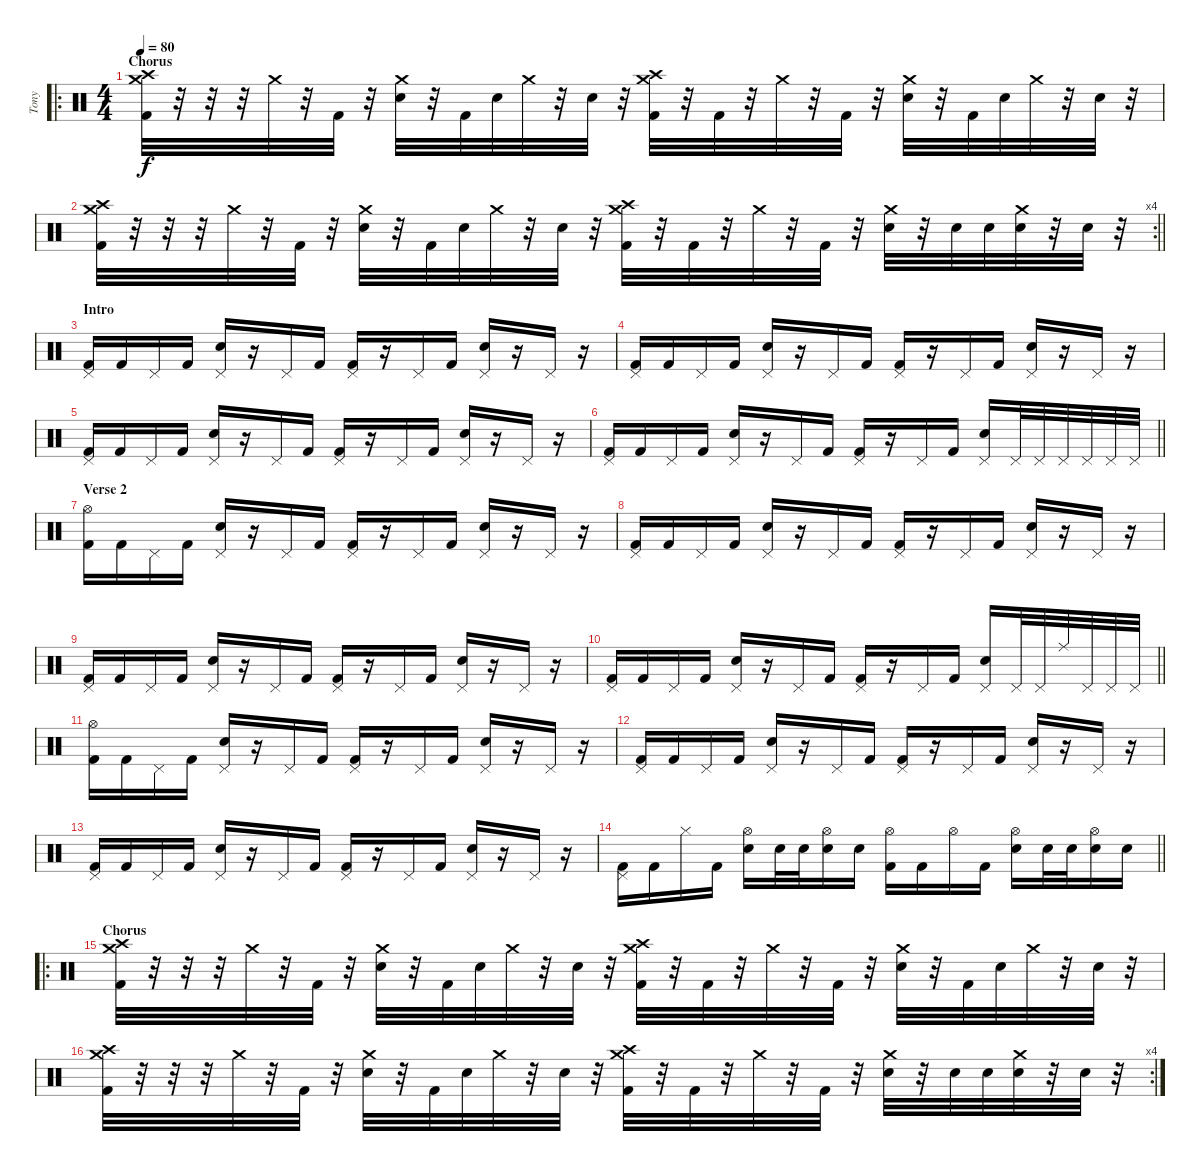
\track ("Tony" "Tony") {instrument percussion}
\staff {score}
\articulation defaults
\ro
\ts (4 4)
\section ("" "Chorus")
\tempo 80
\clef neutral
\ks c
("Crash medium (hit)" "Crash high (hit)" "Kick (hit) 2").32{dy f} r.32 r.32 r.32 "Crash medium (hit)".32 r.32 "Kick (hit) 2".32 r.32 ("Crash medium (hit)" "Electric Snare (hit)").32 r.32 "Kick (hit) 2".32 "Electric Snare (hit)".32 "Crash medium (hit)".32 r.32 "Electric Snare (hit)".32 r.32 ("Crash medium (hit)" "Crash high (hit)" "Kick (hit) 2").32 r.32 "Kick (hit) 2".32 r.32 "Crash medium (hit)".32 r.32 "Kick (hit) 2".32 r.32 ("Crash medium (hit)" "Electric Snare (hit)").32 r.32 "Kick (hit) 2".32 "Electric Snare (hit)".32 "Crash medium (hit)".32 r.32 "Electric Snare (hit)".32 r.32 |
\rc 4
\barLineRight lightlight
("Crash medium (hit)" "Crash high (hit)" "Kick (hit) 2").32 r.32 r.32 r.32 "Crash medium (hit)".32 r.32 "Kick (hit) 2".32 r.32 ("Crash medium (hit)" "Electric Snare (hit)").32 r.32 "Kick (hit) 2".32 "Electric Snare (hit)".32 "Crash medium (hit)".32 r.32 "Electric Snare (hit)".32 r.32 ("Crash medium (hit)" "Crash high (hit)" "Kick (hit) 2").32 r.32 "Kick (hit) 2".32 r.32 "Crash medium (hit)".32 r.32 "Kick (hit) 2".32 r.32 ("Crash medium (hit)" "Electric Snare (hit)").32 r.32 "Electric Snare (hit)".32 "Electric Snare (hit)".32 ("Crash medium (hit)" "Electric Snare (hit)").32 r.32 "Electric Snare (hit)".32 r.32 |
\section ("" "Intro")
("Pedal Hi-Hat (hit)" "Kick (hit) 2").16 "Kick (hit) 2".16 "Pedal Hi-Hat (hit)".16 "Kick (hit) 2".16 ("Pedal Hi-Hat (hit)" "Electric Snare (hit)").16 r.16 "Pedal Hi-Hat (hit)".16 "Kick (hit) 2".16 ("Pedal Hi-Hat (hit)" "Kick (hit) 2").16 r.16 "Pedal Hi-Hat (hit)".16 "Kick (hit) 2".16 ("Pedal Hi-Hat (hit)" "Electric Snare (hit)").16 r.16 "Pedal Hi-Hat (hit)".16 r.16 |
("Pedal Hi-Hat (hit)" "Kick (hit) 2").16 "Kick (hit) 2".16 "Pedal Hi-Hat (hit)".16 "Kick (hit) 2".16 ("Pedal Hi-Hat (hit)" "Electric Snare (hit)").16 r.16 "Pedal Hi-Hat (hit)".16 "Kick (hit) 2".16 ("Pedal Hi-Hat (hit)" "Kick (hit) 2").16 r.16 "Pedal Hi-Hat (hit)".16 "Kick (hit) 2".16 ("Pedal Hi-Hat (hit)" "Electric Snare (hit)").16 r.16 "Pedal Hi-Hat (hit)".16 r.16 |
("Pedal Hi-Hat (hit)" "Kick (hit) 2").16 "Kick (hit) 2".16 "Pedal Hi-Hat (hit)".16 "Kick (hit) 2".16 ("Pedal Hi-Hat (hit)" "Electric Snare (hit)").16 r.16 "Pedal Hi-Hat (hit)".16 "Kick (hit) 2".16 ("Pedal Hi-Hat (hit)" "Kick (hit) 2").16 r.16 "Pedal Hi-Hat (hit)".16 "Kick (hit) 2".16 ("Pedal Hi-Hat (hit)" "Electric Snare (hit)").16 r.16 "Pedal Hi-Hat (hit)".16 r.16 |
\barLineRight lightlight
("Pedal Hi-Hat (hit)" "Kick (hit) 2").16 "Kick (hit) 2".16 "Pedal Hi-Hat (hit)".16 "Kick (hit) 2".16 ("Pedal Hi-Hat (hit)" "Electric Snare (hit)").16 r.16 "Pedal Hi-Hat (hit)".16 "Kick (hit) 2".16 ("Pedal Hi-Hat (hit)" "Kick (hit) 2").16 r.16 "Pedal Hi-Hat (hit)".16 "Kick (hit) 2".16 ("Pedal Hi-Hat (hit)" "Electric Snare (hit)").16 "Pedal Hi-Hat (hit)".32 "Pedal Hi-Hat (hit)".32 "Pedal Hi-Hat (hit)".32 "Pedal Hi-Hat (hit)".32 "Pedal Hi-Hat (hit)".32 "Pedal Hi-Hat (hit)".32 |
\section ("" "Verse 2")
("Hi-Hat (open)" "Kick (hit) 2").16 "Kick (hit) 2".16 "Pedal Hi-Hat (hit)".16 "Kick (hit) 2".16 ("Pedal Hi-Hat (hit)" "Electric Snare (hit)").16 r.16 "Pedal Hi-Hat (hit)".16 "Kick (hit) 2".16 ("Pedal Hi-Hat (hit)" "Kick (hit) 2").16 r.16 "Pedal Hi-Hat (hit)".16 "Kick (hit) 2".16 ("Pedal Hi-Hat (hit)" "Electric Snare (hit)").16 r.16 "Pedal Hi-Hat (hit)".16 r.16 |
("Pedal Hi-Hat (hit)" "Kick (hit) 2").16 "Kick (hit) 2".16 "Pedal Hi-Hat (hit)".16 "Kick (hit) 2".16 ("Pedal Hi-Hat (hit)" "Electric Snare (hit)").16 r.16 "Pedal Hi-Hat (hit)".16 "Kick (hit) 2".16 ("Pedal Hi-Hat (hit)" "Kick (hit) 2").16 r.16 "Pedal Hi-Hat (hit)".16 "Kick (hit) 2".16 ("Pedal Hi-Hat (hit)" "Electric Snare (hit)").16 r.16 "Pedal Hi-Hat (hit)".16 r.16 |
("Pedal Hi-Hat (hit)" "Kick (hit) 2").16 "Kick (hit) 2".16 "Pedal Hi-Hat (hit)".16 "Kick (hit) 2".16 ("Pedal Hi-Hat (hit)" "Electric Snare (hit)").16 r.16 "Pedal Hi-Hat (hit)".16 "Kick (hit) 2".16 ("Pedal Hi-Hat (hit)" "Kick (hit) 2").16 r.16 "Pedal Hi-Hat (hit)".16 "Kick (hit) 2".16 ("Pedal Hi-Hat (hit)" "Electric Snare (hit)").16 r.16 "Pedal Hi-Hat (hit)".16 r.16 |
\barLineRight lightlight
("Pedal Hi-Hat (hit)" "Kick (hit) 2").16 "Kick (hit) 2".16 "Pedal Hi-Hat (hit)".16 "Kick (hit) 2".16 ("Pedal Hi-Hat (hit)" "Electric Snare (hit)").16 r.16 "Pedal Hi-Hat (hit)".16 "Kick (hit) 2".16 ("Pedal Hi-Hat (hit)" "Kick (hit) 2").16 r.16 "Pedal Hi-Hat (hit)".16 "Kick (hit) 2".16 ("Pedal Hi-Hat (hit)" "Electric Snare (hit)").16 "Pedal Hi-Hat (hit)".32 "Pedal Hi-Hat (hit)".32 "Ride (middle)".32 "Pedal Hi-Hat (hit)".32 "Pedal Hi-Hat (hit)".32 "Pedal Hi-Hat (hit)".32 |
("Hi-Hat (open)" "Kick (hit) 2").16 "Kick (hit) 2".16 "Pedal Hi-Hat (hit)".16 "Kick (hit) 2".16 ("Pedal Hi-Hat (hit)" "Electric Snare (hit)").16 r.16 "Pedal Hi-Hat (hit)".16 "Kick (hit) 2".16 ("Pedal Hi-Hat (hit)" "Kick (hit) 2").16 r.16 "Pedal Hi-Hat (hit)".16 "Kick (hit) 2".16 ("Pedal Hi-Hat (hit)" "Electric Snare (hit)").16 r.16 "Pedal Hi-Hat (hit)".16 r.16 |
("Pedal Hi-Hat (hit)" "Kick (hit) 2").16 "Kick (hit) 2".16 "Pedal Hi-Hat (hit)".16 "Kick (hit) 2".16 ("Pedal Hi-Hat (hit)" "Electric Snare (hit)").16 r.16 "Pedal Hi-Hat (hit)".16 "Kick (hit) 2".16 ("Pedal Hi-Hat (hit)" "Kick (hit) 2").16 r.16 "Pedal Hi-Hat (hit)".16 "Kick (hit) 2".16 ("Pedal Hi-Hat (hit)" "Electric Snare (hit)").16 r.16 "Pedal Hi-Hat (hit)".16 r.16 |
("Pedal Hi-Hat (hit)" "Kick (hit) 2").16 "Kick (hit) 2".16 "Pedal Hi-Hat (hit)".16 "Kick (hit) 2".16 ("Pedal Hi-Hat (hit)" "Electric Snare (hit)").16 r.16 "Pedal Hi-Hat (hit)".16 "Kick (hit) 2".16 ("Pedal Hi-Hat (hit)" "Kick (hit) 2").16 r.16 "Pedal Hi-Hat (hit)".16 "Kick (hit) 2".16 ("Pedal Hi-Hat (hit)" "Electric Snare (hit)").16 r.16 "Pedal Hi-Hat (hit)".16 r.16 |
\barLineRight lightlight
("Pedal Hi-Hat (hit)" "Kick (hit) 2").16 "Kick (hit) 2".16 "Hi-Hat (closed)".16 "Kick (hit) 2".16 ("Hi-Hat (open)" "Electric Snare (hit)").16 "Electric Snare (hit)".32 "Electric Snare (hit)".32 ("Hi-Hat (open)" "Electric Snare (hit)").16 "Electric Snare (hit)".16 ("Hi-Hat (open)" "Kick (hit) 2").16 "Kick (hit) 2".16 "Hi-Hat (open)".16 "Kick (hit) 2".16 ("Hi-Hat (open)" "Electric Snare (hit)").16 "Electric Snare (hit)".32 "Electric Snare (hit)".32 ("Hi-Hat (open)" "Electric Snare (hit)").16 "Electric Snare (hit)".16 |
\ro
\section ("" "Chorus")
("Crash medium (hit)" "Crash high (hit)" "Kick (hit) 2").32 r.32 r.32 r.32 "Crash medium (hit)".32 r.32 "Kick (hit) 2".32 r.32 ("Crash medium (hit)" "Electric Snare (hit)").32 r.32 "Kick (hit) 2".32 "Electric Snare (hit)".32 "Crash medium (hit)".32 r.32 "Electric Snare (hit)".32 r.32 ("Crash medium (hit)" "Crash high (hit)" "Kick (hit) 2").32 r.32 "Kick (hit) 2".32 r.32 "Crash medium (hit)".32 r.32 "Kick (hit) 2".32 r.32 ("Crash medium (hit)" "Electric Snare (hit)").32 r.32 "Kick (hit) 2".32 "Electric Snare (hit)".32 "Crash medium (hit)".32 r.32 "Electric Snare (hit)".32 r.32 |
\rc 4
("Crash medium (hit)" "Crash high (hit)" "Kick (hit) 2").32 r.32 r.32 r.32 "Crash medium (hit)".32 r.32 "Kick (hit) 2".32 r.32 ("Crash medium (hit)" "Electric Snare (hit)").32 r.32 "Kick (hit) 2".32 "Electric Snare (hit)".32 "Crash medium (hit)".32 r.32 "Electric Snare (hit)".32 r.32 ("Crash medium (hit)" "Crash high (hit)" "Kick (hit) 2").32 r.32 "Kick (hit) 2".32 r.32 "Crash medium (hit)".32 r.32 "Kick (hit) 2".32 r.32 ("Crash medium (hit)" "Electric Snare (hit)").32 r.32 "Electric Snare (hit)".32 "Electric Snare (hit)".32 ("Crash medium (hit)" "Electric Snare (hit)").32 r.32 "Electric Snare (hit)".32 r.32
